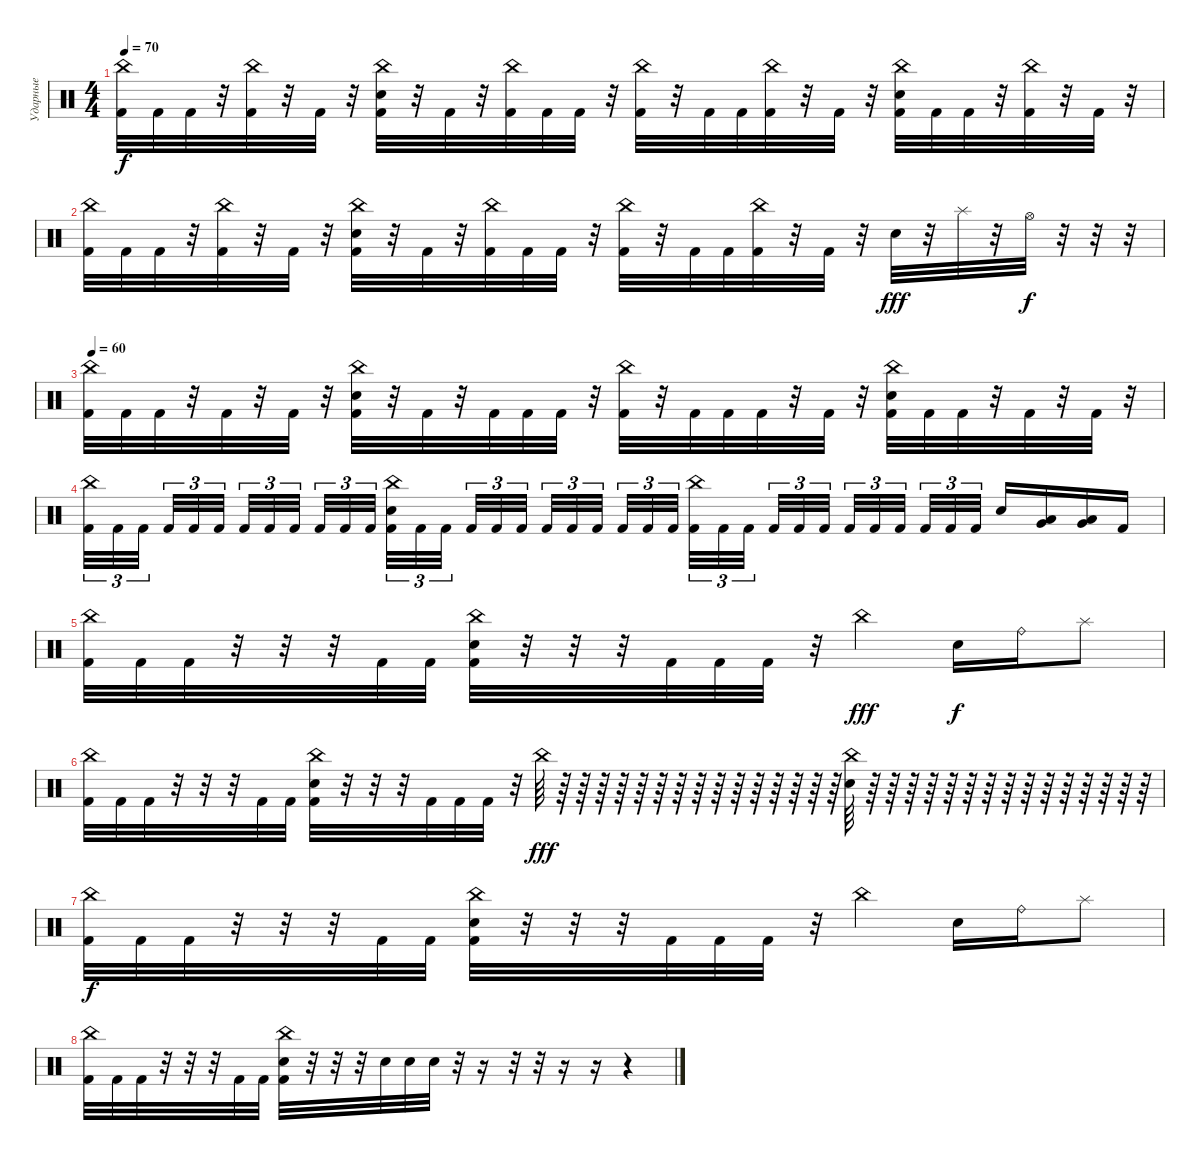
\track ("Ударные" "Ударные") {instrument percussion}
\staff {score}
\articulation defaults
\ts (4 4)
\tempo 70
\clef neutral
\ks c
("China (hit)" "Kick (hit) 2").32{dy f} "Kick (hit) 2".32 "Kick (hit) 2".32 r.32 ("China (hit)" "Kick (hit) 2").32 r.32 "Kick (hit) 2".32 r.32 ("China (hit)" "Electric Snare (hit)" "Kick (hit) 2").32 r.32 "Kick (hit) 2".32 r.32 ("China (hit)" "Kick (hit) 2").32 "Kick (hit) 2".32 "Kick (hit) 2".32 r.32 ("China (hit)" "Kick (hit) 2").32 r.32 "Kick (hit) 2".32 "Kick (hit) 2".32 ("China (hit)" "Kick (hit) 2").32 r.32 "Kick (hit) 2".32 r.32 ("China (hit)" "Electric Snare (hit)" "Kick (hit) 2").32 "Kick (hit) 2".32 "Kick (hit) 2".32 r.32 ("China (hit)" "Kick (hit) 2").32 r.32 "Kick (hit) 2".32 r.32 |
("China (hit)" "Kick (hit) 2").32 "Kick (hit) 2".32 "Kick (hit) 2".32 r.32 ("China (hit)" "Kick (hit) 2").32 r.32 "Kick (hit) 2".32 r.32 ("China (hit)" "Electric Snare (hit)" "Kick (hit) 2").32 r.32 "Kick (hit) 2".32 r.32 ("China (hit)" "Kick (hit) 2").32 "Kick (hit) 2".32 "Kick (hit) 2".32 r.32 ("China (hit)" "Kick (hit) 2").32 r.32 "Kick (hit) 2".32 "Kick (hit) 2".32 ("China (hit)" "Kick (hit) 2").32 r.32 "Kick (hit) 2".32 r.32 "Electric Snare (hit)".32{dy fff} r.32 "Splash (hit)".32 r.32 "Hi-Hat (open)".32{dy f} r.32 r.32 r.32 |
\tempo 60
("China (hit)" "Kick (hit) 2").32 "Kick (hit) 2".32 "Kick (hit) 2".32 r.32 "Kick (hit) 2".32 r.32 "Kick (hit) 2".32 r.32 ("China (hit)" "Electric Snare (hit)" "Kick (hit) 2").32 r.32 "Kick (hit) 2".32 r.32 "Kick (hit) 2".32 "Kick (hit) 2".32 "Kick (hit) 2".32 r.32 ("China (hit)" "Kick (hit) 2").32 r.32 "Kick (hit) 2".32 "Kick (hit) 2".32 "Kick (hit) 2".32 r.32 "Kick (hit) 2".32 r.32 ("China (hit)" "Electric Snare (hit)" "Kick (hit) 2").32 "Kick (hit) 2".32 "Kick (hit) 2".32 r.32 "Kick (hit) 2".32 r.32 "Kick (hit) 2".32 r.32 |
("China (hit)" "Kick (hit) 2").32{tu (3 2)} "Kick (hit) 2".32{tu (3 2)} "Kick (hit) 2".32{tu (3 2) beam splitsecondary} "Kick (hit) 2".32{tu (3 2)} "Kick (hit) 2".32{tu (3 2)} "Kick (hit) 2".32{tu (3 2) beam splitsecondary} "Kick (hit) 2".32{tu (3 2)} "Kick (hit) 2".32{tu (3 2)} "Kick (hit) 2".32{tu (3 2) beam splitsecondary} "Kick (hit) 2".32{tu (3 2)} "Kick (hit) 2".32{tu (3 2)} "Kick (hit) 2".32{tu (3 2)} ("China (hit)" "Electric Snare (hit)" "Kick (hit) 2").32{tu (3 2)} "Kick (hit) 2".32{tu (3 2)} "Kick (hit) 2".32{tu (3 2) beam splitsecondary} "Kick (hit) 2".32{tu (3 2)} "Kick (hit) 2".32{tu (3 2)} "Kick (hit) 2".32{tu (3 2) beam splitsecondary} "Kick (hit) 2".32{tu (3 2)} "Kick (hit) 2".32{tu (3 2)} "Kick (hit) 2".32{tu (3 2) beam splitsecondary} "Kick (hit) 2".32{tu (3 2)} "Kick (hit) 2".32{tu (3 2)} "Kick (hit) 2".32{tu (3 2)} ("China (hit)" "Kick (hit) 2").32{tu (3 2)} "Kick (hit) 2".32{tu (3 2)} "Kick (hit) 2".32{tu (3 2) beam splitsecondary} "Kick (hit) 2".32{tu (3 2)} "Kick (hit) 2".32{tu (3 2)} "Kick (hit) 2".32{tu (3 2) beam splitsecondary} "Kick (hit) 2".32{tu (3 2)} "Kick (hit) 2".32{tu (3 2)} "Kick (hit) 2".32{tu (3 2) beam splitsecondary} "Kick (hit) 2".32{tu (3 2)} "Kick (hit) 2".32{tu (3 2)} "Kick (hit) 2".32{tu (3 2)} "Electric Snare (hit)".16 ("Low Tom (hit)" "Very Low Tom (hit)").16 ("Low Floor Tom (hit)" "Very Low Tom (hit)").16 "Kick (hit) 2".16 |
("China (hit)" "Kick (hit) 2").32 "Kick (hit) 2".32 "Kick (hit) 2".32 r.32 r.32 r.32 "Kick (hit) 2".32 "Kick (hit) 2".32 ("China (hit)" "Electric Snare (hit)" "Kick (hit) 2").32 r.32 r.32 r.32 "Kick (hit) 2".32 "Kick (hit) 2".32 "Kick (hit) 2".32 r.32 "China (hit)".4{dy fff} "Electric Snare (hit)".16{dy f} "Ride (bell)".16 "Splash (hit)".8 |
("China (hit)" "Kick (hit) 2").32 "Kick (hit) 2".32 "Kick (hit) 2".32 r.32 r.32 r.32 "Kick (hit) 2".32 "Kick (hit) 2".32 ("China (hit)" "Electric Snare (hit)" "Kick (hit) 2").32 r.32 r.32 r.32 "Kick (hit) 2".32 "Kick (hit) 2".32 "Kick (hit) 2".32 r.32 "China (hit)".64{dy fff} r.64 r.64 r.64 r.64 r.64 r.64 r.64 r.64 r.64 r.64 r.64 r.64 r.64 r.64 r.64 ("China (hit)" "Electric Snare (hit)").64 r.64 r.64 r.64 r.64 r.64 r.64 r.64 r.64 r.64 r.64 r.64 r.64 r.64 r.64 r.64 |
("China (hit)" "Kick (hit) 2").32{dy f} "Kick (hit) 2".32 "Kick (hit) 2".32 r.32 r.32 r.32 "Kick (hit) 2".32 "Kick (hit) 2".32 ("China (hit)" "Electric Snare (hit)" "Kick (hit) 2").32 r.32 r.32 r.32 "Kick (hit) 2".32 "Kick (hit) 2".32 "Kick (hit) 2".32 r.32 "China (hit)".4 "Electric Snare (hit)".16 "Ride (bell)".16 "Splash (hit)".8 |
("China (hit)" "Kick (hit) 2").32 "Kick (hit) 2".32 "Kick (hit) 2".32 r.32 r.32 r.32 "Kick (hit) 2".32 "Kick (hit) 2".32 ("China (hit)" "Electric Snare (hit)" "Kick (hit) 2").32 r.32 r.32 r.32 "Electric Snare (hit)".32 "Electric Snare (hit)".32 "Electric Snare (hit)".32 r.32 r.16 r.32 r.32 r.16 r.16 r.4
